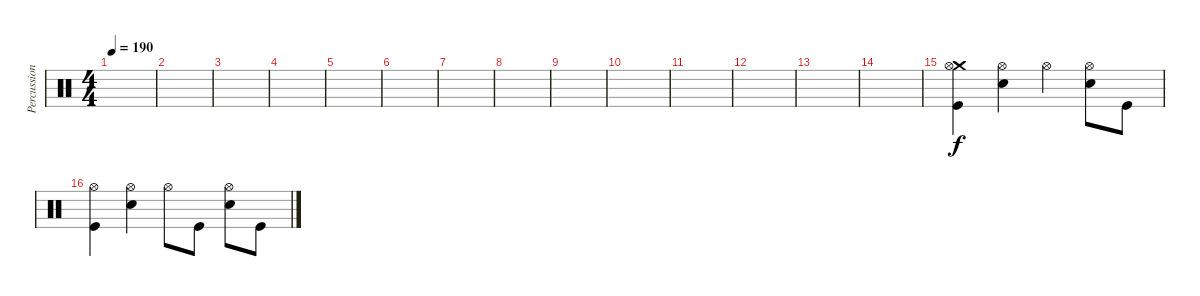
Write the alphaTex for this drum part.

\track ("Percussions" "Percussion") {instrument percussion}
\staff {score}
\articulation defaults
\ts (4 4)
\tempo 190
\clef neutral
\ks c
|
|
|
|
|
|
|
|
|
|
|
|
|
|
("Crash medium (hit)" "Hi-Hat (open)" "Kick (hit)").4 ("Hi-Hat (open)" "Snare (hit) 2").4 "Hi-Hat (open)".4 ("Hi-Hat (open)" "Snare (hit) 2").8 "Kick (hit)".8 |
("Hi-Hat (open)" "Kick (hit)").4 ("Hi-Hat (open)" "Snare (hit) 2").4 "Hi-Hat (open)".8 "Kick (hit)".8 ("Hi-Hat (open)" "Snare (hit) 2").8 "Kick (hit)".8
